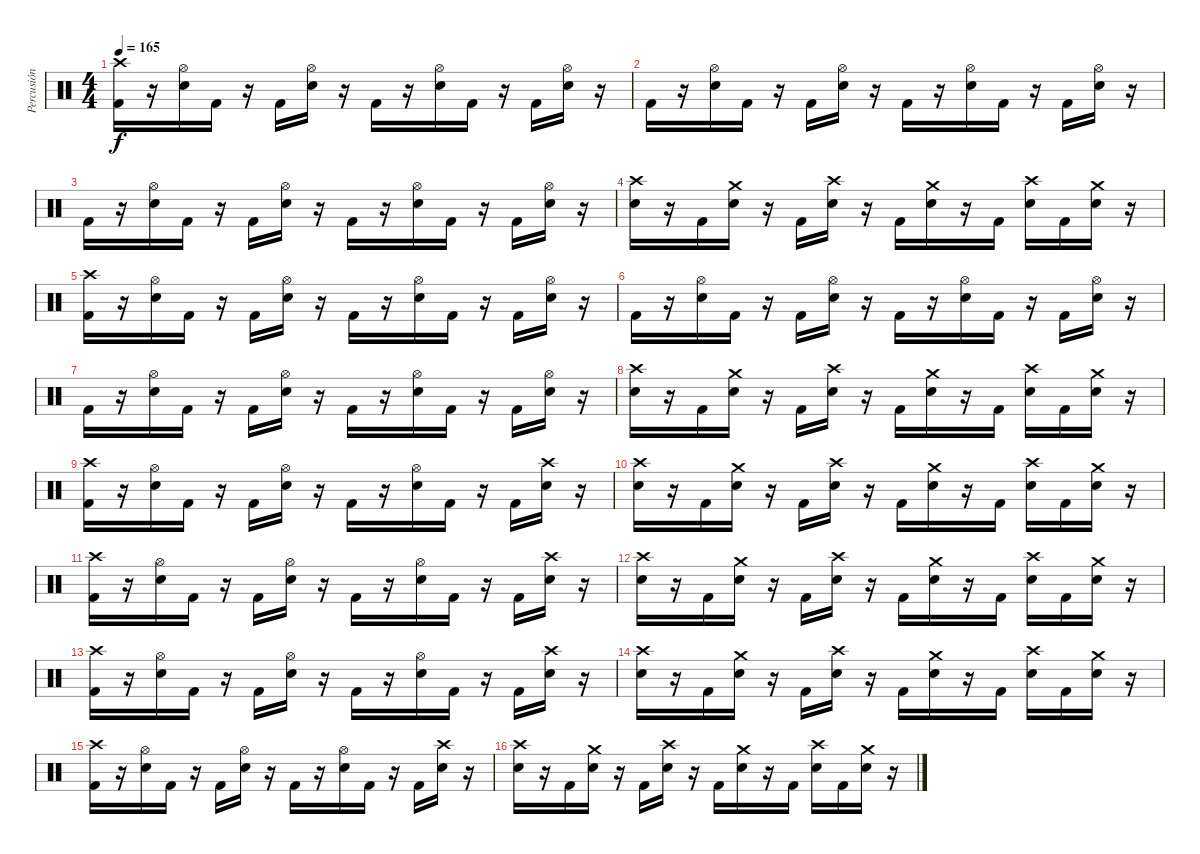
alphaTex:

\track ("Percusión" "Percusión") {instrument percussion}
\staff {score}
\articulation defaults
\ts (4 4)
\tempo 165
\clef neutral
\ks c
("Crash high (hit)" "Kick (hit) 2").16{dy f} r.16 ("Hi-Hat (open)" "Electric Snare (hit)").16 "Kick (hit) 2".16 r.16 "Kick (hit) 2".16 ("Hi-Hat (open)" "Electric Snare (hit)").16 r.16 "Kick (hit) 2".16 r.16 ("Hi-Hat (open)" "Electric Snare (hit)").16 "Kick (hit) 2".16 r.16 "Kick (hit) 2".16 ("Hi-Hat (open)" "Electric Snare (hit)").16 r.16 |
"Kick (hit) 2".16 r.16 ("Hi-Hat (open)" "Electric Snare (hit)").16 "Kick (hit) 2".16 r.16 "Kick (hit) 2".16 ("Hi-Hat (open)" "Electric Snare (hit)").16 r.16 "Kick (hit) 2".16 r.16 ("Hi-Hat (open)" "Electric Snare (hit)").16 "Kick (hit) 2".16 r.16 "Kick (hit) 2".16 ("Hi-Hat (open)" "Electric Snare (hit)").16 r.16 |
"Kick (hit) 2".16 r.16 ("Hi-Hat (open)" "Electric Snare (hit)").16 "Kick (hit) 2".16 r.16 "Kick (hit) 2".16 ("Hi-Hat (open)" "Electric Snare (hit)").16 r.16 "Kick (hit) 2".16 r.16 ("Hi-Hat (open)" "Electric Snare (hit)").16 "Kick (hit) 2".16 r.16 "Kick (hit) 2".16 ("Hi-Hat (open)" "Electric Snare (hit)").16 r.16 |
("Crash high (hit)" "Electric Snare (hit)").16 r.16 "Kick (hit) 2".16 ("Crash medium (hit)" "Electric Snare (hit)").16 r.16 "Kick (hit) 2".16 ("Crash high (hit)" "Electric Snare (hit)").16 r.16 "Kick (hit) 2".16 ("Crash medium (hit)" "Electric Snare (hit)").16 r.16 "Kick (hit) 2".16 ("Crash high (hit)" "Electric Snare (hit)").16 "Kick (hit) 2".16 ("Crash medium (hit)" "Electric Snare (hit)").16 r.16 |
("Crash high (hit)" "Kick (hit) 2").16 r.16 ("Hi-Hat (open)" "Electric Snare (hit)").16 "Kick (hit) 2".16 r.16 "Kick (hit) 2".16 ("Hi-Hat (open)" "Electric Snare (hit)").16 r.16 "Kick (hit) 2".16 r.16 ("Hi-Hat (open)" "Electric Snare (hit)").16 "Kick (hit) 2".16 r.16 "Kick (hit) 2".16 ("Hi-Hat (open)" "Electric Snare (hit)").16 r.16 |
"Kick (hit) 2".16 r.16 ("Hi-Hat (open)" "Electric Snare (hit)").16 "Kick (hit) 2".16 r.16 "Kick (hit) 2".16 ("Hi-Hat (open)" "Electric Snare (hit)").16 r.16 "Kick (hit) 2".16 r.16 ("Hi-Hat (open)" "Electric Snare (hit)").16 "Kick (hit) 2".16 r.16 "Kick (hit) 2".16 ("Hi-Hat (open)" "Electric Snare (hit)").16 r.16 |
"Kick (hit) 2".16 r.16 ("Hi-Hat (open)" "Electric Snare (hit)").16 "Kick (hit) 2".16 r.16 "Kick (hit) 2".16 ("Hi-Hat (open)" "Electric Snare (hit)").16 r.16 "Kick (hit) 2".16 r.16 ("Hi-Hat (open)" "Electric Snare (hit)").16 "Kick (hit) 2".16 r.16 "Kick (hit) 2".16 ("Hi-Hat (open)" "Electric Snare (hit)").16 r.16 |
("Crash high (hit)" "Electric Snare (hit)").16 r.16 "Kick (hit) 2".16 ("Crash medium (hit)" "Electric Snare (hit)").16 r.16 "Kick (hit) 2".16 ("Crash high (hit)" "Electric Snare (hit)").16 r.16 "Kick (hit) 2".16 ("Crash medium (hit)" "Electric Snare (hit)").16 r.16 "Kick (hit) 2".16 ("Crash high (hit)" "Electric Snare (hit)").16 "Kick (hit) 2".16 ("Crash medium (hit)" "Electric Snare (hit)").16 r.16 |
("Crash high (hit)" "Kick (hit) 2").16 r.16 ("Hi-Hat (open)" "Electric Snare (hit)").16 "Kick (hit) 2".16 r.16 "Kick (hit) 2".16 ("Hi-Hat (open)" "Electric Snare (hit)").16 r.16 "Kick (hit) 2".16 r.16 ("Hi-Hat (open)" "Electric Snare (hit)").16 "Kick (hit) 2".16 r.16 "Kick (hit) 2".16 ("Crash high (hit)" "Electric Snare (hit)").16 r.16 |
("Crash high (hit)" "Electric Snare (hit)").16 r.16 "Kick (hit) 2".16 ("Crash medium (hit)" "Electric Snare (hit)").16 r.16 "Kick (hit) 2".16 ("Crash high (hit)" "Electric Snare (hit)").16 r.16 "Kick (hit) 2".16 ("Crash medium (hit)" "Electric Snare (hit)").16 r.16 "Kick (hit) 2".16 ("Crash high (hit)" "Electric Snare (hit)").16 "Kick (hit) 2".16 ("Crash medium (hit)" "Electric Snare (hit)").16 r.16 |
("Crash high (hit)" "Kick (hit) 2").16 r.16 ("Hi-Hat (open)" "Electric Snare (hit)").16 "Kick (hit) 2".16 r.16 "Kick (hit) 2".16 ("Hi-Hat (open)" "Electric Snare (hit)").16 r.16 "Kick (hit) 2".16 r.16 ("Hi-Hat (open)" "Electric Snare (hit)").16 "Kick (hit) 2".16 r.16 "Kick (hit) 2".16 ("Crash high (hit)" "Electric Snare (hit)").16 r.16 |
("Crash high (hit)" "Electric Snare (hit)").16 r.16 "Kick (hit) 2".16 ("Crash medium (hit)" "Electric Snare (hit)").16 r.16 "Kick (hit) 2".16 ("Crash high (hit)" "Electric Snare (hit)").16 r.16 "Kick (hit) 2".16 ("Crash medium (hit)" "Electric Snare (hit)").16 r.16 "Kick (hit) 2".16 ("Crash high (hit)" "Electric Snare (hit)").16 "Kick (hit) 2".16 ("Crash medium (hit)" "Electric Snare (hit)").16 r.16 |
("Crash high (hit)" "Kick (hit) 2").16 r.16 ("Hi-Hat (open)" "Electric Snare (hit)").16 "Kick (hit) 2".16 r.16 "Kick (hit) 2".16 ("Hi-Hat (open)" "Electric Snare (hit)").16 r.16 "Kick (hit) 2".16 r.16 ("Hi-Hat (open)" "Electric Snare (hit)").16 "Kick (hit) 2".16 r.16 "Kick (hit) 2".16 ("Crash high (hit)" "Electric Snare (hit)").16 r.16 |
("Crash high (hit)" "Electric Snare (hit)").16 r.16 "Kick (hit) 2".16 ("Crash medium (hit)" "Electric Snare (hit)").16 r.16 "Kick (hit) 2".16 ("Crash high (hit)" "Electric Snare (hit)").16 r.16 "Kick (hit) 2".16 ("Crash medium (hit)" "Electric Snare (hit)").16 r.16 "Kick (hit) 2".16 ("Crash high (hit)" "Electric Snare (hit)").16 "Kick (hit) 2".16 ("Crash medium (hit)" "Electric Snare (hit)").16 r.16 |
("Crash high (hit)" "Kick (hit) 2").16 r.16 ("Hi-Hat (open)" "Electric Snare (hit)").16 "Kick (hit) 2".16 r.16 "Kick (hit) 2".16 ("Hi-Hat (open)" "Electric Snare (hit)").16 r.16 "Kick (hit) 2".16 r.16 ("Hi-Hat (open)" "Electric Snare (hit)").16 "Kick (hit) 2".16 r.16 "Kick (hit) 2".16 ("Crash high (hit)" "Electric Snare (hit)").16 r.16 |
("Crash high (hit)" "Electric Snare (hit)").16 r.16 "Kick (hit) 2".16 ("Crash medium (hit)" "Electric Snare (hit)").16 r.16 "Kick (hit) 2".16 ("Crash high (hit)" "Electric Snare (hit)").16 r.16 "Kick (hit) 2".16 ("Crash medium (hit)" "Electric Snare (hit)").16 r.16 "Kick (hit) 2".16 ("Crash high (hit)" "Electric Snare (hit)").16 "Kick (hit) 2".16 ("Crash medium (hit)" "Electric Snare (hit)").16 r.16
